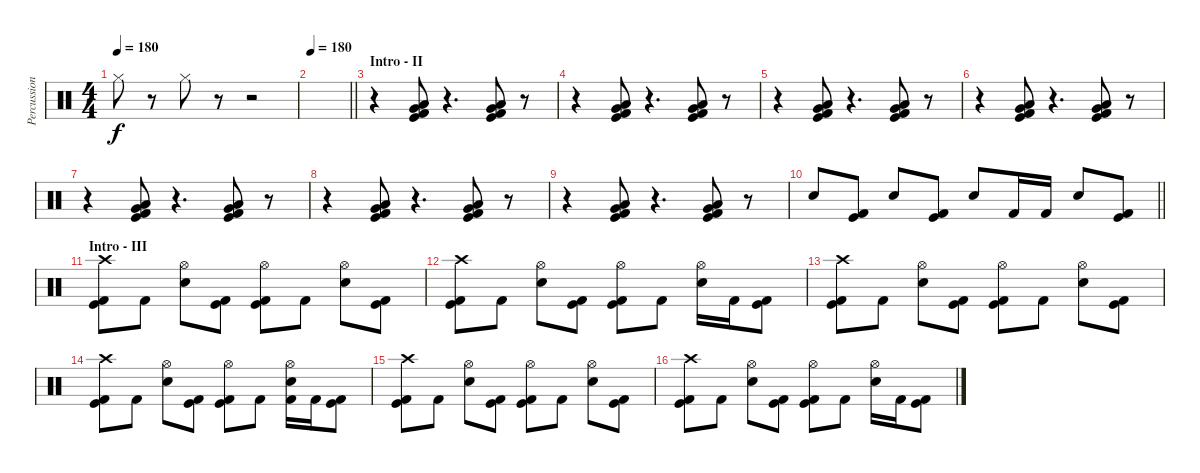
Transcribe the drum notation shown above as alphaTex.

\track ("Percussion" "Percussion") {instrument percussion}
\staff {score}
\articulation defaults
\ts (4 4)
\tempo 180
\clef neutral
\ks c "Hi-Hat (closed)".8{dy f}
r.8 "Hi-Hat (closed)".8 r.8 r.2 |
\tempo 180
\barLineRight lightlight
|
\section ("" "Intro - II")
r.4 ("Low Floor Tom (hit)" "Very Low Tom (hit)" "Kick (hit)" "Kick (hit) 2").8 r.4{d} ("Low Floor Tom (hit)" "Very Low Tom (hit)" "Kick (hit)" "Kick (hit) 2").8 r.8 |
r.4 ("Low Floor Tom (hit)" "Very Low Tom (hit)" "Kick (hit)" "Kick (hit) 2").8 r.4{d} ("Low Floor Tom (hit)" "Very Low Tom (hit)" "Kick (hit)" "Kick (hit) 2").8 r.8 |
r.4 ("Low Floor Tom (hit)" "Very Low Tom (hit)" "Kick (hit)" "Kick (hit) 2").8 r.4{d} ("Low Floor Tom (hit)" "Very Low Tom (hit)" "Kick (hit)" "Kick (hit) 2").8 r.8 |
r.4 ("Low Floor Tom (hit)" "Very Low Tom (hit)" "Kick (hit)" "Kick (hit) 2").8 r.4{d} ("Low Floor Tom (hit)" "Very Low Tom (hit)" "Kick (hit)" "Kick (hit) 2").8 r.8 |
r.4 ("Low Floor Tom (hit)" "Very Low Tom (hit)" "Kick (hit)" "Kick (hit) 2").8 r.4{d} ("Low Floor Tom (hit)" "Very Low Tom (hit)" "Kick (hit)" "Kick (hit) 2").8 r.8 |
r.4 ("Low Floor Tom (hit)" "Very Low Tom (hit)" "Kick (hit)" "Kick (hit) 2").8 r.4{d} ("Low Floor Tom (hit)" "Very Low Tom (hit)" "Kick (hit)" "Kick (hit) 2").8 r.8 |
r.4 ("Low Floor Tom (hit)" "Very Low Tom (hit)" "Kick (hit)" "Kick (hit) 2").8 r.4{d} ("Low Floor Tom (hit)" "Very Low Tom (hit)" "Kick (hit)" "Kick (hit) 2").8 r.8 |
\barLineRight lightlight "Snare (hit) 2".8
("Kick (hit)" "Kick (hit) 2").8 "Snare (hit) 2".8 ("Kick (hit)" "Kick (hit) 2").8 "Snare (hit) 2".8 "Kick (hit) 2".16 "Kick (hit) 2".16 "Snare (hit) 2".8 ("Kick (hit)" "Kick (hit) 2").8 |
\section ("" "Intro - III")
("Crash high (hit)" "Kick (hit)" "Kick (hit) 2").8 "Kick (hit) 2".8 ("Hi-Hat (open)" "Snare (hit) 2").8 ("Kick (hit)" "Kick (hit) 2").8 ("Hi-Hat (open)" "Kick (hit)" "Kick (hit) 2").8 "Kick (hit) 2".8 ("Hi-Hat (open)" "Snare (hit) 2").8 ("Kick (hit)" "Kick (hit) 2").8 |
("Crash high (hit)" "Kick (hit)" "Kick (hit) 2").8 "Kick (hit) 2".8 ("Hi-Hat (open)" "Snare (hit) 2").8 ("Kick (hit)" "Kick (hit) 2").8 ("Hi-Hat (open)" "Kick (hit)" "Kick (hit) 2").8 "Kick (hit) 2".8 ("Hi-Hat (open)" "Snare (hit) 2").16 "Kick (hit) 2".16 ("Kick (hit)" "Kick (hit) 2").8 |
("Crash high (hit)" "Kick (hit)" "Kick (hit) 2").8 "Kick (hit) 2".8 ("Hi-Hat (open)" "Snare (hit) 2").8 ("Kick (hit)" "Kick (hit) 2").8 ("Hi-Hat (open)" "Kick (hit)" "Kick (hit) 2").8 "Kick (hit) 2".8 ("Hi-Hat (open)" "Snare (hit) 2").8 ("Kick (hit)" "Kick (hit) 2").8 |
("Crash high (hit)" "Kick (hit)" "Kick (hit) 2").8 "Kick (hit) 2".8 ("Hi-Hat (open)" "Snare (hit) 2").8 ("Kick (hit)" "Kick (hit) 2").8 ("Hi-Hat (open)" "Kick (hit)" "Kick (hit) 2").8 "Kick (hit) 2".8 ("Hi-Hat (open)" "Snare (hit) 2" "Kick (hit) 2").16 "Kick (hit) 2".16 ("Kick (hit)" "Kick (hit) 2").8 |
("Crash high (hit)" "Kick (hit)" "Kick (hit) 2").8 "Kick (hit) 2".8 ("Hi-Hat (open)" "Snare (hit) 2").8 ("Kick (hit)" "Kick (hit) 2").8 ("Hi-Hat (open)" "Kick (hit)" "Kick (hit) 2").8 "Kick (hit) 2".8 ("Hi-Hat (open)" "Snare (hit) 2").8 ("Kick (hit)" "Kick (hit) 2").8 |
("Crash high (hit)" "Kick (hit)" "Kick (hit) 2").8 "Kick (hit) 2".8 ("Hi-Hat (open)" "Snare (hit) 2").8 ("Kick (hit)" "Kick (hit) 2").8 ("Hi-Hat (open)" "Kick (hit)" "Kick (hit) 2").8 "Kick (hit) 2".8 ("Hi-Hat (open)" "Snare (hit) 2").16 "Kick (hit) 2".16 ("Kick (hit)" "Kick (hit) 2").8
